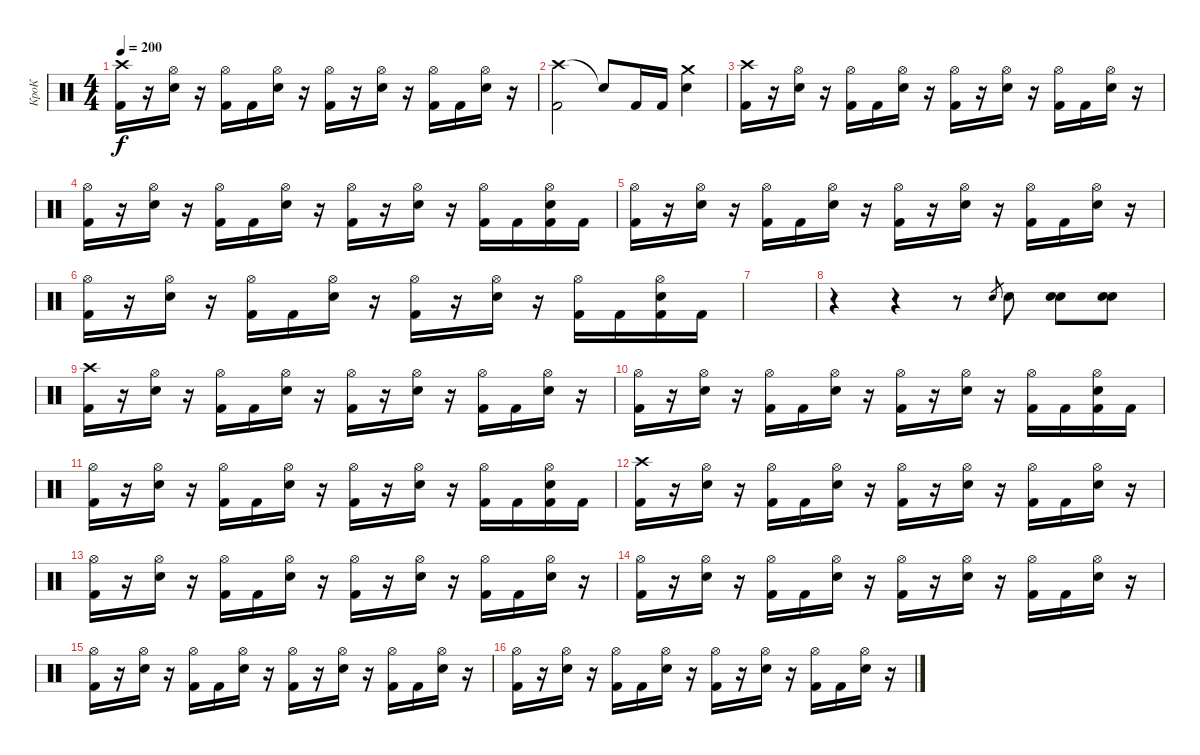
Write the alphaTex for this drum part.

\track ("КроК" "КроК") {instrument percussion}
\staff {score}
\articulation defaults
\ts (4 4)
\tempo 200
\clef neutral
\ks c
("Crash high (hit)" "Kick (hit) 2").16{dy f} r.16 ("Hi-Hat (open)" "Electric Snare (hit)").16 r.16 ("Hi-Hat (open)" "Kick (hit) 2").16 "Kick (hit) 2".16 ("Hi-Hat (open)" "Electric Snare (hit)").16 r.16 ("Hi-Hat (open)" "Kick (hit) 2").16 r.16 ("Hi-Hat (open)" "Electric Snare (hit)").16 r.16 ("Hi-Hat (open)" "Kick (hit) 2").16 "Kick (hit) 2".16 ("Hi-Hat (open)" "Electric Snare (hit)").16 r.16 |
("Crash high (hit)" "Kick (hit) 2").2 "Snare (hit)"{t}.8 "Kick (hit) 2".16 "Kick (hit) 2".16 ("Crash medium (hit)" "Electric Snare (hit)").4 |
("Crash high (hit)" "Kick (hit) 2").16 r.16 ("Hi-Hat (open)" "Electric Snare (hit)").16 r.16 ("Hi-Hat (open)" "Kick (hit) 2").16 "Kick (hit) 2".16 ("Hi-Hat (open)" "Electric Snare (hit)").16 r.16 ("Hi-Hat (open)" "Kick (hit) 2").16 r.16 ("Hi-Hat (open)" "Electric Snare (hit)").16 r.16 ("Hi-Hat (open)" "Kick (hit) 2").16 "Kick (hit) 2".16 ("Hi-Hat (open)" "Electric Snare (hit)").16 r.16 |
("Hi-Hat (open)" "Kick (hit) 2").16 r.16 ("Hi-Hat (open)" "Electric Snare (hit)").16 r.16 ("Hi-Hat (open)" "Kick (hit) 2").16 "Kick (hit) 2".16 ("Hi-Hat (open)" "Electric Snare (hit)").16 r.16 ("Hi-Hat (open)" "Kick (hit) 2").16 r.16 ("Hi-Hat (open)" "Electric Snare (hit)").16 r.16 ("Hi-Hat (open)" "Kick (hit) 2").16 "Kick (hit) 2".16 ("Hi-Hat (open)" "Electric Snare (hit)" "Kick (hit) 2").16 "Kick (hit) 2".16 |
("Hi-Hat (open)" "Kick (hit) 2").16 r.16 ("Hi-Hat (open)" "Electric Snare (hit)").16 r.16 ("Hi-Hat (open)" "Kick (hit) 2").16 "Kick (hit) 2".16 ("Hi-Hat (open)" "Electric Snare (hit)").16 r.16 ("Hi-Hat (open)" "Kick (hit) 2").16 r.16 ("Hi-Hat (open)" "Electric Snare (hit)").16 r.16 ("Hi-Hat (open)" "Kick (hit) 2").16 "Kick (hit) 2".16 ("Hi-Hat (open)" "Electric Snare (hit)").16 r.16 |
("Hi-Hat (open)" "Kick (hit) 2").16 r.16 ("Hi-Hat (open)" "Electric Snare (hit)").16 r.16 ("Hi-Hat (open)" "Kick (hit) 2").16 "Kick (hit) 2".16 ("Hi-Hat (open)" "Electric Snare (hit)").16 r.16 ("Hi-Hat (open)" "Kick (hit) 2").16 r.16 ("Hi-Hat (open)" "Electric Snare (hit)").16 r.16 ("Hi-Hat (open)" "Kick (hit) 2").16 "Kick (hit) 2".16 ("Hi-Hat (open)" "Electric Snare (hit)" "Kick (hit) 2").16 "Kick (hit) 2".16 |
|
r.4 r.4 r.8 "Electric Snare (hit)".8{gr} "Electric Snare (hit)".8 ("Electric Snare (hit)" "Electric Snare (hit)").8 ("Electric Snare (hit)" "Electric Snare (hit)").8 |
("Crash high (hit)" "Kick (hit) 2").16 r.16 ("Hi-Hat (open)" "Electric Snare (hit)").16 r.16 ("Hi-Hat (open)" "Kick (hit) 2").16 "Kick (hit) 2".16 ("Hi-Hat (open)" "Electric Snare (hit)").16 r.16 ("Hi-Hat (open)" "Kick (hit) 2").16 r.16 ("Hi-Hat (open)" "Electric Snare (hit)").16 r.16 ("Hi-Hat (open)" "Kick (hit) 2").16 "Kick (hit) 2".16 ("Hi-Hat (open)" "Electric Snare (hit)").16 r.16 |
("Hi-Hat (open)" "Kick (hit) 2").16 r.16 ("Hi-Hat (open)" "Electric Snare (hit)").16 r.16 ("Hi-Hat (open)" "Kick (hit) 2").16 "Kick (hit) 2".16 ("Hi-Hat (open)" "Electric Snare (hit)").16 r.16 ("Hi-Hat (open)" "Kick (hit) 2").16 r.16 ("Hi-Hat (open)" "Electric Snare (hit)").16 r.16 ("Hi-Hat (open)" "Kick (hit) 2").16 "Kick (hit) 2".16 ("Hi-Hat (open)" "Electric Snare (hit)" "Kick (hit) 2").16 "Kick (hit) 2".16 |
("Hi-Hat (open)" "Kick (hit) 2").16 r.16 ("Hi-Hat (open)" "Electric Snare (hit)").16 r.16 ("Hi-Hat (open)" "Kick (hit) 2").16 "Kick (hit) 2".16 ("Hi-Hat (open)" "Electric Snare (hit)").16 r.16 ("Hi-Hat (open)" "Kick (hit) 2").16 r.16 ("Hi-Hat (open)" "Electric Snare (hit)").16 r.16 ("Hi-Hat (open)" "Kick (hit) 2").16 "Kick (hit) 2".16 ("Hi-Hat (open)" "Electric Snare (hit)" "Kick (hit) 2").16 "Kick (hit) 2".16 |
("Crash high (hit)" "Kick (hit) 2").16 r.16 ("Hi-Hat (open)" "Electric Snare (hit)").16 r.16 ("Hi-Hat (open)" "Kick (hit) 2").16 "Kick (hit) 2".16 ("Hi-Hat (open)" "Electric Snare (hit)").16 r.16 ("Hi-Hat (open)" "Kick (hit) 2").16 r.16 ("Hi-Hat (open)" "Electric Snare (hit)").16 r.16 ("Hi-Hat (open)" "Kick (hit) 2").16 "Kick (hit) 2".16 ("Hi-Hat (open)" "Electric Snare (hit)").16 r.16 |
("Hi-Hat (open)" "Kick (hit) 2").16 r.16 ("Hi-Hat (open)" "Electric Snare (hit)").16 r.16 ("Hi-Hat (open)" "Kick (hit) 2").16 "Kick (hit) 2".16 ("Hi-Hat (open)" "Electric Snare (hit)").16 r.16 ("Hi-Hat (open)" "Kick (hit) 2").16 r.16 ("Hi-Hat (open)" "Electric Snare (hit)").16 r.16 ("Hi-Hat (open)" "Kick (hit) 2").16 "Kick (hit) 2".16 ("Hi-Hat (open)" "Electric Snare (hit)").16 r.16 |
("Hi-Hat (open)" "Kick (hit) 2").16 r.16 ("Hi-Hat (open)" "Electric Snare (hit)").16 r.16 ("Hi-Hat (open)" "Kick (hit) 2").16 "Kick (hit) 2".16 ("Hi-Hat (open)" "Electric Snare (hit)").16 r.16 ("Hi-Hat (open)" "Kick (hit) 2").16 r.16 ("Hi-Hat (open)" "Electric Snare (hit)").16 r.16 ("Hi-Hat (open)" "Kick (hit) 2").16 "Kick (hit) 2".16 ("Hi-Hat (open)" "Electric Snare (hit)").16 r.16 |
("Hi-Hat (open)" "Kick (hit) 2").16 r.16 ("Hi-Hat (open)" "Electric Snare (hit)").16 r.16 ("Hi-Hat (open)" "Kick (hit) 2").16 "Kick (hit) 2".16 ("Hi-Hat (open)" "Electric Snare (hit)").16 r.16 ("Hi-Hat (open)" "Kick (hit) 2").16 r.16 ("Hi-Hat (open)" "Electric Snare (hit)").16 r.16 ("Hi-Hat (open)" "Kick (hit) 2").16 "Kick (hit) 2".16 ("Hi-Hat (open)" "Electric Snare (hit)").16 r.16 |
("Hi-Hat (open)" "Kick (hit) 2").16 r.16 ("Hi-Hat (open)" "Electric Snare (hit)").16 r.16 ("Hi-Hat (open)" "Kick (hit) 2").16 "Kick (hit) 2".16 ("Hi-Hat (open)" "Electric Snare (hit)").16 r.16 ("Hi-Hat (open)" "Kick (hit) 2").16 r.16 ("Hi-Hat (open)" "Electric Snare (hit)").16 r.16 ("Hi-Hat (open)" "Kick (hit) 2").16 "Kick (hit) 2".16 ("Hi-Hat (open)" "Electric Snare (hit)").16 r.16
